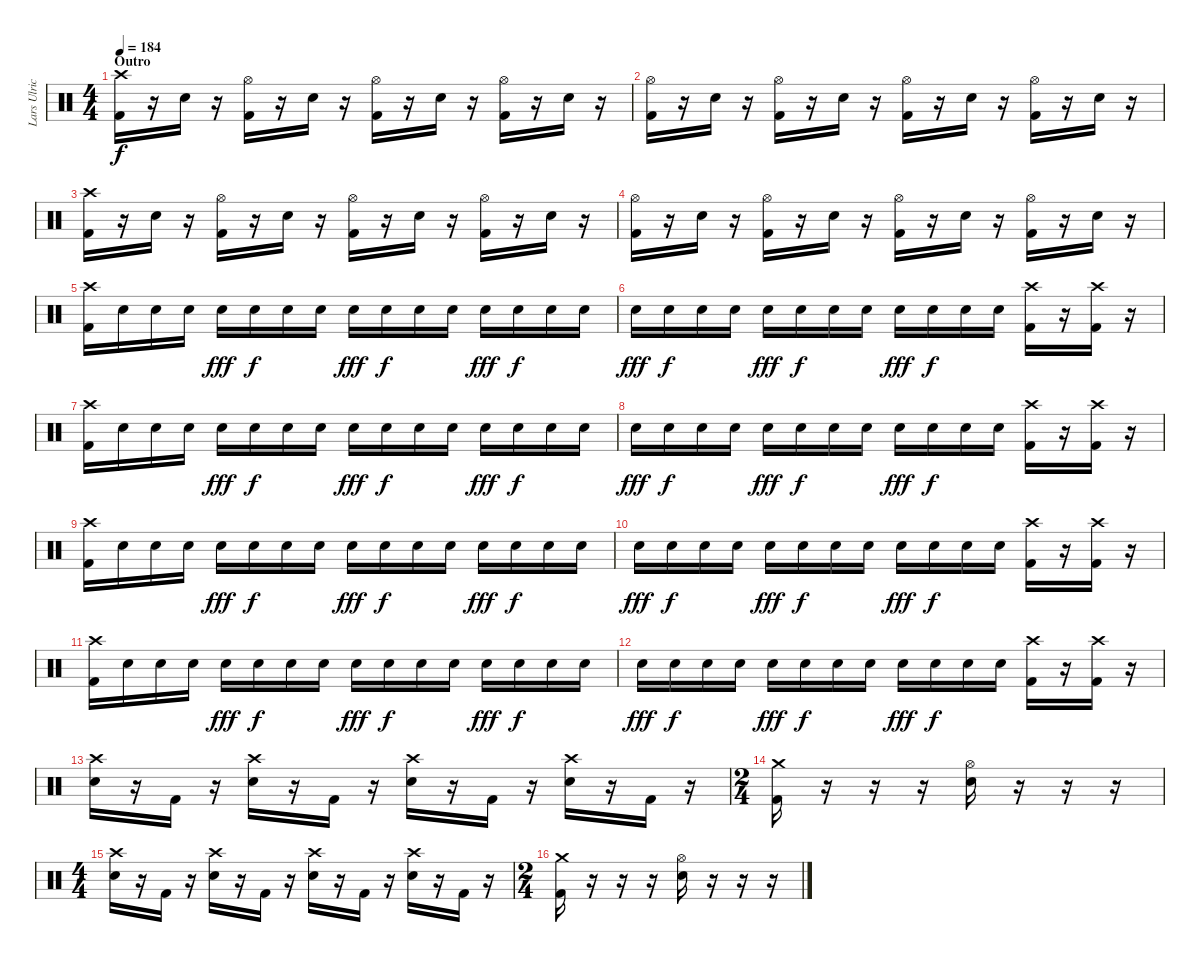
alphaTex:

\track ("Lars Ulrich" "Lars Ulric") {instrument percussion}
\staff {score}
\articulation defaults
\ts (4 4)
\section ("" "Outro")
\tempo 184
\clef neutral
\ks c
("Crash high (hit)" "Kick (hit) 2").16{dy f volume 10} r.16 "Electric Snare (hit)".16 r.16 ("Hi-Hat (open)" "Kick (hit) 2").16 r.16 "Electric Snare (hit)".16 r.16 ("Hi-Hat (open)" "Kick (hit) 2").16 r.16 "Electric Snare (hit)".16 r.16 ("Hi-Hat (open)" "Kick (hit) 2").16 r.16 "Electric Snare (hit)".16 r.16 |
("Hi-Hat (open)" "Kick (hit) 2").16 r.16 "Electric Snare (hit)".16 r.16 ("Hi-Hat (open)" "Kick (hit) 2").16 r.16 "Electric Snare (hit)".16 r.16 ("Hi-Hat (open)" "Kick (hit) 2").16 r.16 "Electric Snare (hit)".16 r.16 ("Hi-Hat (open)" "Kick (hit) 2").16 r.16 "Electric Snare (hit)".16 r.16 |
("Crash high (hit)" "Kick (hit) 2").16 r.16 "Electric Snare (hit)".16 r.16 ("Hi-Hat (open)" "Kick (hit) 2").16 r.16 "Electric Snare (hit)".16 r.16 ("Hi-Hat (open)" "Kick (hit) 2").16 r.16 "Electric Snare (hit)".16 r.16 ("Hi-Hat (open)" "Kick (hit) 2").16 r.16 "Electric Snare (hit)".16 r.16 |
("Hi-Hat (open)" "Kick (hit) 2").16 r.16 "Electric Snare (hit)".16 r.16 ("Hi-Hat (open)" "Kick (hit) 2").16 r.16 "Electric Snare (hit)".16 r.16 ("Hi-Hat (open)" "Kick (hit) 2").16 r.16 "Electric Snare (hit)".16 r.16 ("Hi-Hat (open)" "Kick (hit) 2").16 r.16 "Electric Snare (hit)".16 r.16 |
("Crash high (hit)" "Kick (hit) 2").16 "Electric Snare (hit)".16 "Electric Snare (hit)".16 "Electric Snare (hit)".16 "Electric Snare (hit)".16{dy fff} "Electric Snare (hit)".16{dy f} "Electric Snare (hit)".16 "Electric Snare (hit)".16 "Electric Snare (hit)".16{dy fff} "Electric Snare (hit)".16{dy f} "Electric Snare (hit)".16 "Electric Snare (hit)".16 "Electric Snare (hit)".16{dy fff} "Electric Snare (hit)".16{dy f} "Electric Snare (hit)".16 "Electric Snare (hit)".16 |
"Electric Snare (hit)".16{dy fff} "Electric Snare (hit)".16{dy f} "Electric Snare (hit)".16 "Electric Snare (hit)".16 "Electric Snare (hit)".16{dy fff} "Electric Snare (hit)".16{dy f} "Electric Snare (hit)".16 "Electric Snare (hit)".16 "Electric Snare (hit)".16{dy fff} "Electric Snare (hit)".16{dy f} "Electric Snare (hit)".16 "Electric Snare (hit)".16 ("Crash high (hit)" "Kick (hit) 2").16 r.16 ("Crash high (hit)" "Kick (hit) 2").16 r.16 |
("Crash high (hit)" "Kick (hit) 2").16 "Electric Snare (hit)".16 "Electric Snare (hit)".16 "Electric Snare (hit)".16 "Electric Snare (hit)".16{dy fff} "Electric Snare (hit)".16{dy f} "Electric Snare (hit)".16 "Electric Snare (hit)".16 "Electric Snare (hit)".16{dy fff} "Electric Snare (hit)".16{dy f} "Electric Snare (hit)".16 "Electric Snare (hit)".16 "Electric Snare (hit)".16{dy fff} "Electric Snare (hit)".16{dy f} "Electric Snare (hit)".16 "Electric Snare (hit)".16 |
"Electric Snare (hit)".16{dy fff} "Electric Snare (hit)".16{dy f} "Electric Snare (hit)".16 "Electric Snare (hit)".16 "Electric Snare (hit)".16{dy fff} "Electric Snare (hit)".16{dy f} "Electric Snare (hit)".16 "Electric Snare (hit)".16 "Electric Snare (hit)".16{dy fff} "Electric Snare (hit)".16{dy f} "Electric Snare (hit)".16 "Electric Snare (hit)".16 ("Crash high (hit)" "Kick (hit) 2").16 r.16 ("Crash high (hit)" "Kick (hit) 2").16 r.16 |
("Crash high (hit)" "Kick (hit) 2").16 "Electric Snare (hit)".16 "Electric Snare (hit)".16 "Electric Snare (hit)".16 "Electric Snare (hit)".16{dy fff} "Electric Snare (hit)".16{dy f} "Electric Snare (hit)".16 "Electric Snare (hit)".16 "Electric Snare (hit)".16{dy fff} "Electric Snare (hit)".16{dy f} "Electric Snare (hit)".16 "Electric Snare (hit)".16 "Electric Snare (hit)".16{dy fff} "Electric Snare (hit)".16{dy f} "Electric Snare (hit)".16 "Electric Snare (hit)".16 |
"Electric Snare (hit)".16{dy fff} "Electric Snare (hit)".16{dy f} "Electric Snare (hit)".16 "Electric Snare (hit)".16 "Electric Snare (hit)".16{dy fff} "Electric Snare (hit)".16{dy f} "Electric Snare (hit)".16 "Electric Snare (hit)".16 "Electric Snare (hit)".16{dy fff} "Electric Snare (hit)".16{dy f} "Electric Snare (hit)".16 "Electric Snare (hit)".16 ("Crash high (hit)" "Kick (hit) 2").16 r.16 ("Crash high (hit)" "Kick (hit) 2").16 r.16 |
("Crash high (hit)" "Kick (hit) 2").16 "Electric Snare (hit)".16 "Electric Snare (hit)".16 "Electric Snare (hit)".16 "Electric Snare (hit)".16{dy fff} "Electric Snare (hit)".16{dy f} "Electric Snare (hit)".16 "Electric Snare (hit)".16 "Electric Snare (hit)".16{dy fff} "Electric Snare (hit)".16{dy f} "Electric Snare (hit)".16 "Electric Snare (hit)".16 "Electric Snare (hit)".16{dy fff} "Electric Snare (hit)".16{dy f} "Electric Snare (hit)".16 "Electric Snare (hit)".16 |
"Electric Snare (hit)".16{dy fff} "Electric Snare (hit)".16{dy f} "Electric Snare (hit)".16 "Electric Snare (hit)".16 "Electric Snare (hit)".16{dy fff} "Electric Snare (hit)".16{dy f} "Electric Snare (hit)".16 "Electric Snare (hit)".16 "Electric Snare (hit)".16{dy fff} "Electric Snare (hit)".16{dy f} "Electric Snare (hit)".16 "Electric Snare (hit)".16 ("Crash high (hit)" "Kick (hit) 2").16 r.16 ("Crash high (hit)" "Kick (hit) 2").16 r.16 |
("Crash high (hit)" "Electric Snare (hit)").16 r.16 "Kick (hit) 2".16 r.16 ("Crash high (hit)" "Electric Snare (hit)").16 r.16 "Kick (hit) 2".16 r.16 ("Crash high (hit)" "Electric Snare (hit)").16 r.16 "Kick (hit) 2".16 r.16 ("Crash high (hit)" "Electric Snare (hit)").16 r.16 "Kick (hit) 2".16 r.16 |
\ts (2 4)
("Crash medium (hit)" "Kick (hit) 2").16 r.16 r.16 r.16 ("Electric Snare (hit)" "Hi-Hat (open)").16 r.16 r.16 r.16 |
\ts (4 4)
("Crash high (hit)" "Electric Snare (hit)").16 r.16 "Kick (hit) 2".16 r.16 ("Crash high (hit)" "Electric Snare (hit)").16 r.16 "Kick (hit) 2".16 r.16 ("Crash high (hit)" "Electric Snare (hit)").16 r.16 "Kick (hit) 2".16 r.16 ("Crash high (hit)" "Electric Snare (hit)").16 r.16 "Kick (hit) 2".16 r.16 |
\ts (2 4)
("Crash medium (hit)" "Kick (hit) 2").16 r.16 r.16 r.16 ("Electric Snare (hit)" "Hi-Hat (open)").16 r.16 r.16 r.16
